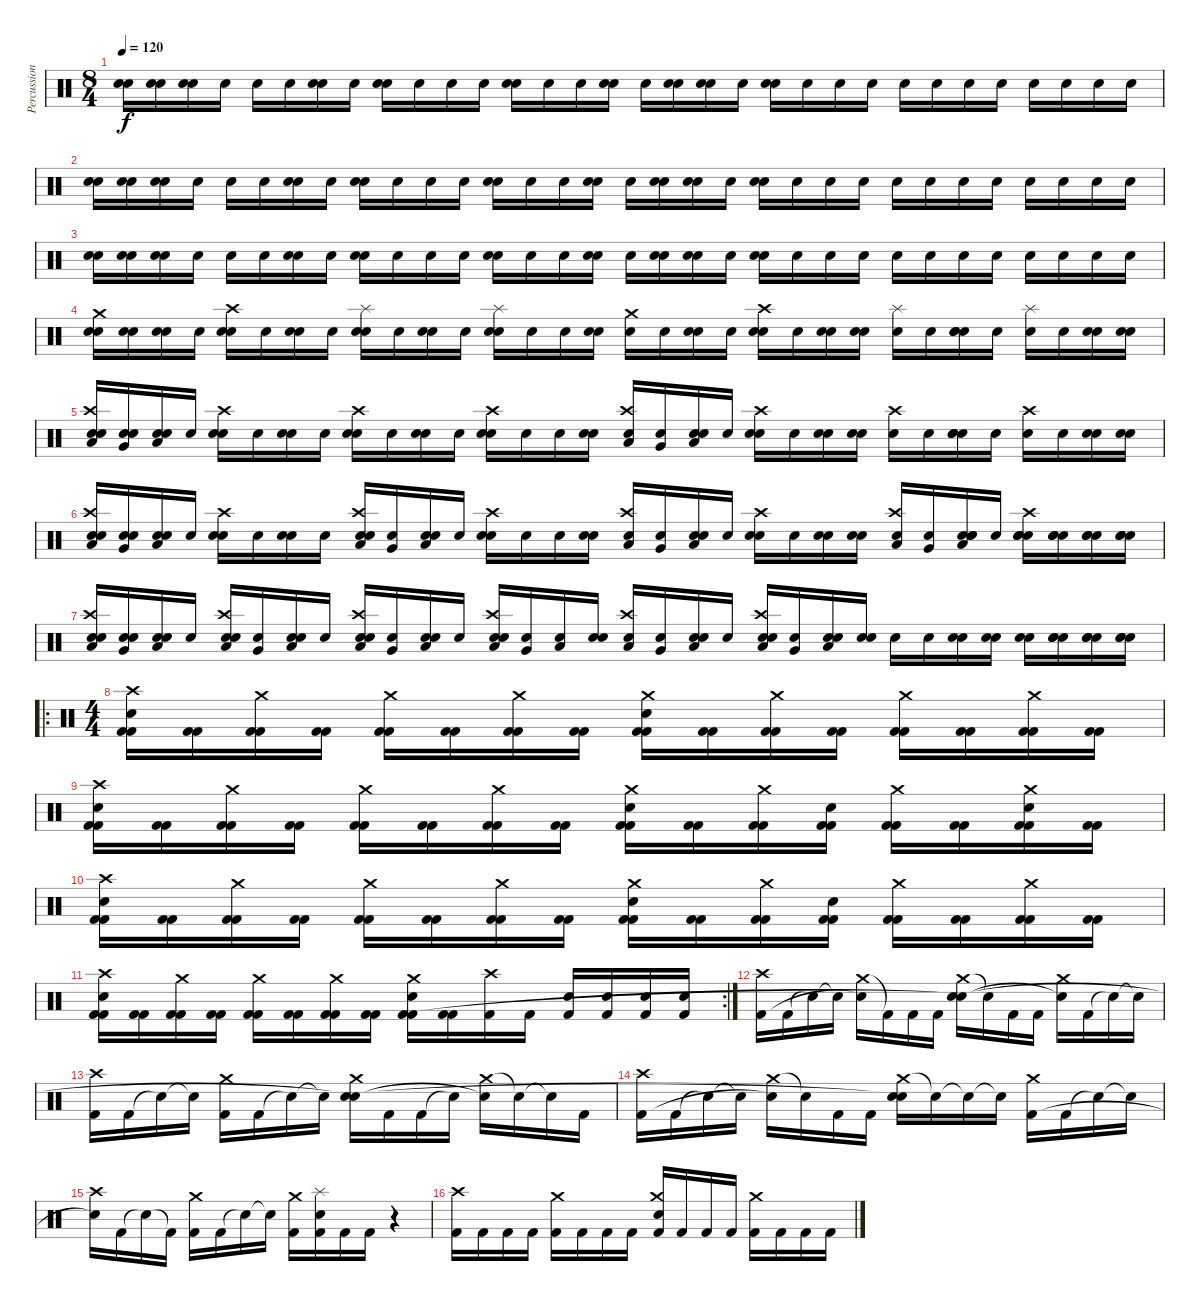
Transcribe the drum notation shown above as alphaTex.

\track ("Percussion" "Percussion") {instrument percussion}
\staff {score}
\articulation defaults
\ts (8 4)
\tempo 120
\clef neutral
\ks c
("Electric Snare (hit)" "Electric Snare (hit)").16{dy f} ("Electric Snare (hit)" "Electric Snare (hit)").16 ("Electric Snare (hit)" "Electric Snare (hit)").16 "Snare (hit)".16 "Snare (hit)".16 "Snare (hit)".16 ("Electric Snare (hit)" "Electric Snare (hit)").16 "Snare (hit)".16 ("Electric Snare (hit)" "Electric Snare (hit)").16 "Snare (hit)".16 "Snare (hit)".16 "Snare (hit)".16 ("Electric Snare (hit)" "Electric Snare (hit)").16 "Snare (hit)".16 "Snare (hit)".16 ("Electric Snare (hit)" "Electric Snare (hit)").16 "Snare (hit)".16 ("Snare (hit)" "Electric Snare (hit)").16 ("Electric Snare (hit)" "Electric Snare (hit)").16 "Snare (hit)".16 ("Electric Snare (hit)" "Electric Snare (hit)").16 "Snare (hit)".16 "Snare (hit)".16 "Snare (hit)".16 "Snare (hit)".16 "Snare (hit)".16 "Snare (hit)".16 "Snare (hit)".16 "Snare (hit)".16 "Snare (hit)".16 "Snare (hit)".16 "Snare (hit)".16 |
("Electric Snare (hit)" "Electric Snare (hit)").16 ("Electric Snare (hit)" "Electric Snare (hit)").16 ("Electric Snare (hit)" "Electric Snare (hit)").16 "Snare (hit)".16 "Snare (hit)".16 "Snare (hit)".16 ("Electric Snare (hit)" "Electric Snare (hit)").16 "Snare (hit)".16 ("Electric Snare (hit)" "Electric Snare (hit)").16 "Snare (hit)".16 "Snare (hit)".16 "Snare (hit)".16 ("Electric Snare (hit)" "Electric Snare (hit)").16 "Snare (hit)".16 "Snare (hit)".16 ("Electric Snare (hit)" "Electric Snare (hit)").16 "Snare (hit)".16 ("Snare (hit)" "Electric Snare (hit)").16 ("Electric Snare (hit)" "Electric Snare (hit)").16 "Snare (hit)".16 ("Electric Snare (hit)" "Electric Snare (hit)").16 "Snare (hit)".16 "Snare (hit)".16 "Snare (hit)".16 "Snare (hit)".16 "Snare (hit)".16 "Snare (hit)".16 "Snare (hit)".16 "Snare (hit)".16 "Snare (hit)".16 "Snare (hit)".16 "Snare (hit)".16 |
("Electric Snare (hit)" "Electric Snare (hit)").16 ("Electric Snare (hit)" "Electric Snare (hit)").16 ("Electric Snare (hit)" "Electric Snare (hit)").16 "Snare (hit)".16 "Snare (hit)".16 "Snare (hit)".16 ("Electric Snare (hit)" "Electric Snare (hit)").16 "Snare (hit)".16 ("Electric Snare (hit)" "Electric Snare (hit)").16 "Snare (hit)".16 "Snare (hit)".16 "Snare (hit)".16 ("Electric Snare (hit)" "Electric Snare (hit)").16 "Snare (hit)".16 "Snare (hit)".16 ("Electric Snare (hit)" "Electric Snare (hit)").16 "Snare (hit)".16 ("Snare (hit)" "Electric Snare (hit)").16 ("Electric Snare (hit)" "Electric Snare (hit)").16 "Snare (hit)".16 ("Electric Snare (hit)" "Electric Snare (hit)").16 "Snare (hit)".16 "Snare (hit)".16 "Snare (hit)".16 "Snare (hit)".16 "Snare (hit)".16 "Snare (hit)".16 "Snare (hit)".16 "Snare (hit)".16 "Snare (hit)".16 "Snare (hit)".16 "Snare (hit)".16 |
("Electric Snare (hit)" "Electric Snare (hit)" "Crash medium (hit)").16 ("Electric Snare (hit)" "Electric Snare (hit)").16 ("Electric Snare (hit)" "Electric Snare (hit)").16 "Snare (hit)".16 ("Snare (hit)" "Electric Snare (hit)" "Crash high (hit)").16 "Snare (hit)".16 ("Electric Snare (hit)" "Electric Snare (hit)").16 "Snare (hit)".16 ("Electric Snare (hit)" "Electric Snare (hit)" "Splash (hit)").16 "Snare (hit)".16 ("Snare (hit)" "Electric Snare (hit)").16 "Snare (hit)".16 ("Electric Snare (hit)" "Electric Snare (hit)" "Splash (hit)").16 "Snare (hit)".16 "Snare (hit)".16 ("Electric Snare (hit)" "Electric Snare (hit)").16 ("Snare (hit)" "Crash medium (hit)").16 "Snare (hit)".16 ("Electric Snare (hit)" "Electric Snare (hit)").16 "Snare (hit)".16 ("Electric Snare (hit)" "Electric Snare (hit)" "Crash high (hit)").16 "Snare (hit)".16 ("Snare (hit)" "Electric Snare (hit)").16 ("Electric Snare (hit)" "Electric Snare (hit)").16 ("Snare (hit)" "Splash (hit)").16 "Snare (hit)".16 ("Electric Snare (hit)" "Snare (hit)" "Electric Snare (hit)").16 "Snare (hit)".16 ("Snare (hit)" "Splash (hit)").16 "Snare (hit)".16 ("Snare (hit)" "Electric Snare (hit)").16 ("Electric Snare (hit)" "Electric Snare (hit)").16 |
("Electric Snare (hit)" "Electric Snare (hit)" "Low Tom (hit)" "Crash high (hit)").16 ("Electric Snare (hit)" "Electric Snare (hit)" "Very Low Tom (hit)").16 ("Electric Snare (hit)" "Electric Snare (hit)" "Low Floor Tom (hit)").16 "Snare (hit)".16 ("Snare (hit)" "Electric Snare (hit)" "Crash high (hit)").16 "Snare (hit)".16 ("Electric Snare (hit)" "Electric Snare (hit)").16 "Snare (hit)".16 ("Electric Snare (hit)" "Electric Snare (hit)" "Crash high (hit)").16 "Snare (hit)".16 ("Snare (hit)" "Electric Snare (hit)").16 "Snare (hit)".16 ("Electric Snare (hit)" "Electric Snare (hit)" "Crash high (hit)").16 "Snare (hit)".16 "Snare (hit)".16 ("Electric Snare (hit)" "Electric Snare (hit)").16 ("Snare (hit)" "Low Tom (hit)" "Crash high (hit)").16 ("Snare (hit)" "Very Low Tom (hit)").16 ("Electric Snare (hit)" "Electric Snare (hit)" "Low Floor Tom (hit)").16 "Snare (hit)".16 ("Electric Snare (hit)" "Electric Snare (hit)" "Crash high (hit)").16 "Snare (hit)".16 ("Snare (hit)" "Electric Snare (hit)").16 ("Electric Snare (hit)" "Electric Snare (hit)").16 ("Snare (hit)" "Crash high (hit)").16 "Snare (hit)".16 ("Electric Snare (hit)" "Snare (hit)" "Electric Snare (hit)").16 "Snare (hit)".16 ("Snare (hit)" "Crash high (hit)").16 "Snare (hit)".16 ("Snare (hit)" "Electric Snare (hit)").16 ("Electric Snare (hit)" "Electric Snare (hit)").16 |
("Electric Snare (hit)" "Electric Snare (hit)" "Low Tom (hit)" "Crash high (hit)").16 ("Electric Snare (hit)" "Electric Snare (hit)" "Very Low Tom (hit)").16 ("Electric Snare (hit)" "Electric Snare (hit)" "Low Floor Tom (hit)").16 "Snare (hit)".16 ("Snare (hit)" "Electric Snare (hit)" "Crash high (hit)").16 "Snare (hit)".16 ("Electric Snare (hit)" "Electric Snare (hit)").16 "Snare (hit)".16 ("Electric Snare (hit)" "Electric Snare (hit)" "Low Tom (hit)" "Crash high (hit)").16 ("Snare (hit)" "Very Low Tom (hit)").16 ("Snare (hit)" "Electric Snare (hit)" "Low Floor Tom (hit)").16 "Snare (hit)".16 ("Electric Snare (hit)" "Electric Snare (hit)" "Crash high (hit)").16 "Snare (hit)".16 "Snare (hit)".16 ("Electric Snare (hit)" "Electric Snare (hit)").16 ("Snare (hit)" "Low Tom (hit)" "Crash high (hit)").16 ("Snare (hit)" "Very Low Tom (hit)").16 ("Electric Snare (hit)" "Electric Snare (hit)" "Low Floor Tom (hit)").16 "Snare (hit)".16 ("Electric Snare (hit)" "Electric Snare (hit)" "Crash high (hit)").16 "Snare (hit)".16 ("Snare (hit)" "Electric Snare (hit)").16 ("Electric Snare (hit)" "Electric Snare (hit)").16 ("Snare (hit)" "Low Tom (hit)" "Crash high (hit)").16 ("Snare (hit)" "Very Low Tom (hit)").16 ("Electric Snare (hit)" "Snare (hit)" "Electric Snare (hit)" "Low Floor Tom (hit)").16 "Snare (hit)".16 ("Snare (hit)" "Electric Snare (hit)" "Electric Snare (hit)" "Crash high (hit)").16 ("Snare (hit)" "Electric Snare (hit)" "Electric Snare (hit)").16 ("Electric Snare (hit)" "Electric Snare (hit)" "Electric Snare (hit)").16 ("Electric Snare (hit)" "Electric Snare (hit)" "Electric Snare (hit)").16 |
("Electric Snare (hit)" "Electric Snare (hit)" "Low Tom (hit)" "Crash high (hit)").16 ("Electric Snare (hit)" "Electric Snare (hit)" "Very Low Tom (hit)").16 ("Electric Snare (hit)" "Electric Snare (hit)" "Low Floor Tom (hit)").16 "Snare (hit)".16 ("Snare (hit)" "Electric Snare (hit)" "Low Tom (hit)" "Crash high (hit)").16 ("Snare (hit)" "Very Low Tom (hit)").16 ("Electric Snare (hit)" "Electric Snare (hit)" "Low Floor Tom (hit)").16 "Snare (hit)".16 ("Electric Snare (hit)" "Electric Snare (hit)" "Low Tom (hit)" "Crash high (hit)").16 ("Snare (hit)" "Very Low Tom (hit)").16 ("Snare (hit)" "Electric Snare (hit)" "Low Floor Tom (hit)").16 "Snare (hit)".16 ("Electric Snare (hit)" "Electric Snare (hit)" "Low Tom (hit)" "Crash high (hit)").16 ("Snare (hit)" "Very Low Tom (hit)").16 ("Snare (hit)" "Low Floor Tom (hit)").16 ("Electric Snare (hit)" "Electric Snare (hit)").16 ("Snare (hit)" "Low Tom (hit)" "Crash high (hit)").16 ("Snare (hit)" "Very Low Tom (hit)").16 ("Electric Snare (hit)" "Electric Snare (hit)" "Low Floor Tom (hit)").16 "Snare (hit)".16 ("Electric Snare (hit)" "Electric Snare (hit)" "Low Tom (hit)" "Crash high (hit)").16 ("Snare (hit)" "Very Low Tom (hit)").16 ("Snare (hit)" "Electric Snare (hit)" "Low Floor Tom (hit)").16 ("Electric Snare (hit)" "Electric Snare (hit)").16 "Electric Snare (hit)".16 "Electric Snare (hit)".16 ("Electric Snare (hit)" "Electric Snare (hit)").16 ("Electric Snare (hit)" "Electric Snare (hit)").16 ("Electric Snare (hit)" "Electric Snare (hit)").16 ("Electric Snare (hit)" "Electric Snare (hit)" "Electric Snare (hit)").16 ("Electric Snare (hit)" "Electric Snare (hit)" "Electric Snare (hit)").16 ("Electric Snare (hit)" "Electric Snare (hit)" "Electric Snare (hit)").16 |
\ro
\ts (4 4)
("Crash high (hit)" "Electric Snare (hit)" "Kick (hit) 2" "Kick (hit) 2").16 ("Kick (hit) 2" "Kick (hit) 2").16 ("Crash medium (hit)" "Kick (hit) 2" "Kick (hit) 2").16 ("Kick (hit) 2" "Kick (hit) 2").16 ("Crash medium (hit)" "Kick (hit) 2" "Kick (hit) 2").16 ("Kick (hit) 2" "Kick (hit) 2").16 ("Crash medium (hit)" "Kick (hit) 2" "Kick (hit) 2").16 ("Kick (hit) 2" "Kick (hit) 2").16 ("Crash medium (hit)" "Electric Snare (hit)" "Kick (hit) 2" "Kick (hit) 2").16 ("Kick (hit) 2" "Kick (hit) 2").16 ("Crash medium (hit)" "Kick (hit) 2" "Kick (hit) 2").16 ("Kick (hit) 2" "Kick (hit) 2").16 ("Crash medium (hit)" "Kick (hit) 2" "Kick (hit) 2").16 ("Kick (hit) 2" "Kick (hit) 2").16 ("Crash medium (hit)" "Kick (hit) 2" "Kick (hit) 2").16 ("Kick (hit) 2" "Kick (hit) 2").16 |
("Crash high (hit)" "Electric Snare (hit)" "Kick (hit) 2" "Kick (hit) 2").16 ("Kick (hit) 2" "Kick (hit) 2").16 ("Crash medium (hit)" "Kick (hit) 2" "Kick (hit) 2").16 ("Kick (hit) 2" "Kick (hit) 2").16 ("Crash medium (hit)" "Kick (hit) 2" "Kick (hit) 2").16 ("Kick (hit) 2" "Kick (hit) 2").16 ("Crash medium (hit)" "Kick (hit) 2" "Kick (hit) 2").16 ("Kick (hit) 2" "Kick (hit) 2").16 ("Crash medium (hit)" "Electric Snare (hit)" "Kick (hit) 2" "Kick (hit) 2").16 ("Kick (hit) 2" "Kick (hit) 2").16 ("Crash medium (hit)" "Kick (hit) 2" "Kick (hit) 2").16 ("Electric Snare (hit)" "Kick (hit) 2" "Kick (hit) 2").16 ("Crash medium (hit)" "Kick (hit) 2" "Kick (hit) 2").16 ("Kick (hit) 2" "Kick (hit) 2").16 ("Crash medium (hit)" "Electric Snare (hit)" "Kick (hit) 2" "Kick (hit) 2").16 ("Kick (hit) 2" "Kick (hit) 2").16 |
("Crash high (hit)" "Electric Snare (hit)" "Kick (hit) 2" "Kick (hit) 2").16 ("Kick (hit) 2" "Kick (hit) 2").16 ("Crash medium (hit)" "Kick (hit) 2" "Kick (hit) 2").16 ("Kick (hit) 2" "Kick (hit) 2").16 ("Crash medium (hit)" "Kick (hit) 2" "Kick (hit) 2").16 ("Kick (hit) 2" "Kick (hit) 2").16 ("Crash medium (hit)" "Kick (hit) 2" "Kick (hit) 2").16 ("Kick (hit) 2" "Kick (hit) 2").16 ("Crash medium (hit)" "Electric Snare (hit)" "Kick (hit) 2" "Kick (hit) 2").16 ("Kick (hit) 2" "Kick (hit) 2").16 ("Crash medium (hit)" "Kick (hit) 2" "Kick (hit) 2").16 ("Electric Snare (hit)" "Kick (hit) 2" "Kick (hit) 2").16 ("Crash medium (hit)" "Kick (hit) 2" "Kick (hit) 2").16 ("Kick (hit) 2" "Kick (hit) 2").16 ("Crash medium (hit)" "Kick (hit) 2" "Kick (hit) 2").16 ("Kick (hit) 2" "Kick (hit) 2").16 |
\rc 2
("Crash high (hit)" "Electric Snare (hit)" "Kick (hit) 2" "Kick (hit) 2").16 ("Kick (hit) 2" "Kick (hit) 2").16 ("Crash medium (hit)" "Kick (hit) 2" "Kick (hit) 2").16 ("Kick (hit) 2" "Kick (hit) 2").16 ("Crash medium (hit)" "Kick (hit) 2" "Kick (hit) 2").16 ("Kick (hit) 2" "Kick (hit) 2").16 ("Crash medium (hit)" "Kick (hit) 2" "Kick (hit) 2").16 ("Kick (hit) 2" "Kick (hit) 2").16 ("Crash medium (hit)" "Electric Snare (hit)" "Kick (hit) 2" "Kick (hit) 2").16 ("Kick (hit) 2" "Kick (hit) 2").16 ("Crash high (hit)" "Kick (hit) 2").16 "Kick (hit) 2".16 ("Electric Snare (hit)" "Kick (hit) 2").16 ("Electric Snare (hit)" "Kick (hit) 2").16 ("Electric Snare (hit)" "Kick (hit) 2").16 ("Electric Snare (hit)" "Kick (hit) 2").16 |
("Crash high (hit)" "Kick (hit) 2").16 "Kick (hit) 2".16 "Snare (hit)"{t}.16 "Snare (hit)"{t}.16 ("Crash medium (hit)" "Snare (hit)"{t}).16 "Kick (hit) 2"{t}.16 "Kick (hit) 2".16 "Kick (hit) 2".16 ("Crash medium (hit)" "Electric Snare (hit)" "Snare (hit)"{t}).16 "Snare (hit)"{t}.16 "Kick (hit) 2".16 "Kick (hit) 2".16 ("Crash medium (hit)" "Snare (hit)"{t}).16 "Kick (hit) 2".16 "Snare (hit)"{t}.16 "Snare (hit)"{t}.16 |
("Crash high (hit)" "Kick (hit) 2").16 "Kick (hit) 2".16 "Snare (hit)"{t}.16 "Snare (hit)"{t}.16 ("Crash medium (hit)" "Kick (hit) 2").16 "Kick (hit) 2".16 "Snare (hit)"{t}.16 "Snare (hit)"{t}.16 ("Crash medium (hit)" "Electric Snare (hit)" "Snare (hit)"{t}).16 "Kick (hit) 2".16 "Kick (hit) 2".16 "Snare (hit)"{t}.16 ("Crash medium (hit)" "Snare (hit)"{t}).16 "Snare (hit)"{t}.16 "Snare (hit)"{t}.16 "Kick (hit) 2".16 |
("Crash high (hit)" "Kick (hit) 2").16 "Kick (hit) 2".16 "Snare (hit)"{t}.16 "Snare (hit)"{t}.16 ("Crash medium (hit)" "Snare (hit)"{t}).16 "Snare (hit)"{t}.16 "Kick (hit) 2".16 "Kick (hit) 2".16 ("Crash medium (hit)" "Electric Snare (hit)" "Snare (hit)"{t}).16 "Snare (hit)"{t}.16 "Snare (hit)"{t}.16 "Snare (hit)"{t}.16 ("Crash medium (hit)" "Kick (hit) 2").16 "Kick (hit) 2".16 "Snare (hit)"{t}.16 "Snare (hit)"{t}.16 |
("Crash high (hit)" "Snare (hit)"{t}).16 "Kick (hit) 2".16 "Snare (hit)"{t}.16 "Kick (hit) 2"{t}.16 ("Crash medium (hit)" "Kick (hit) 2").16 "Kick (hit) 2".16 "Snare (hit)"{t}.16 "Snare (hit)"{t}.16 ("Crash medium (hit)" "Kick (hit) 2").16 ("Splash (hit)" "Electric Snare (hit)" "Kick (hit) 2").16 "Kick (hit) 2".16 "Kick (hit) 2".16 r.4 |
("Crash high (hit)" "Kick (hit) 2").16 "Kick (hit) 2".16 "Kick (hit) 2".16 "Kick (hit) 2".16 ("Crash medium (hit)" "Kick (hit) 2").16 "Kick (hit) 2".16 "Kick (hit) 2".16 "Kick (hit) 2".16 ("Crash medium (hit)" "Electric Snare (hit)" "Kick (hit) 2").16 "Kick (hit) 2".16 "Kick (hit) 2".16 "Kick (hit) 2".16 ("Crash medium (hit)" "Kick (hit) 2").16 "Kick (hit) 2".16 "Kick (hit) 2".16 "Kick (hit) 2".16
